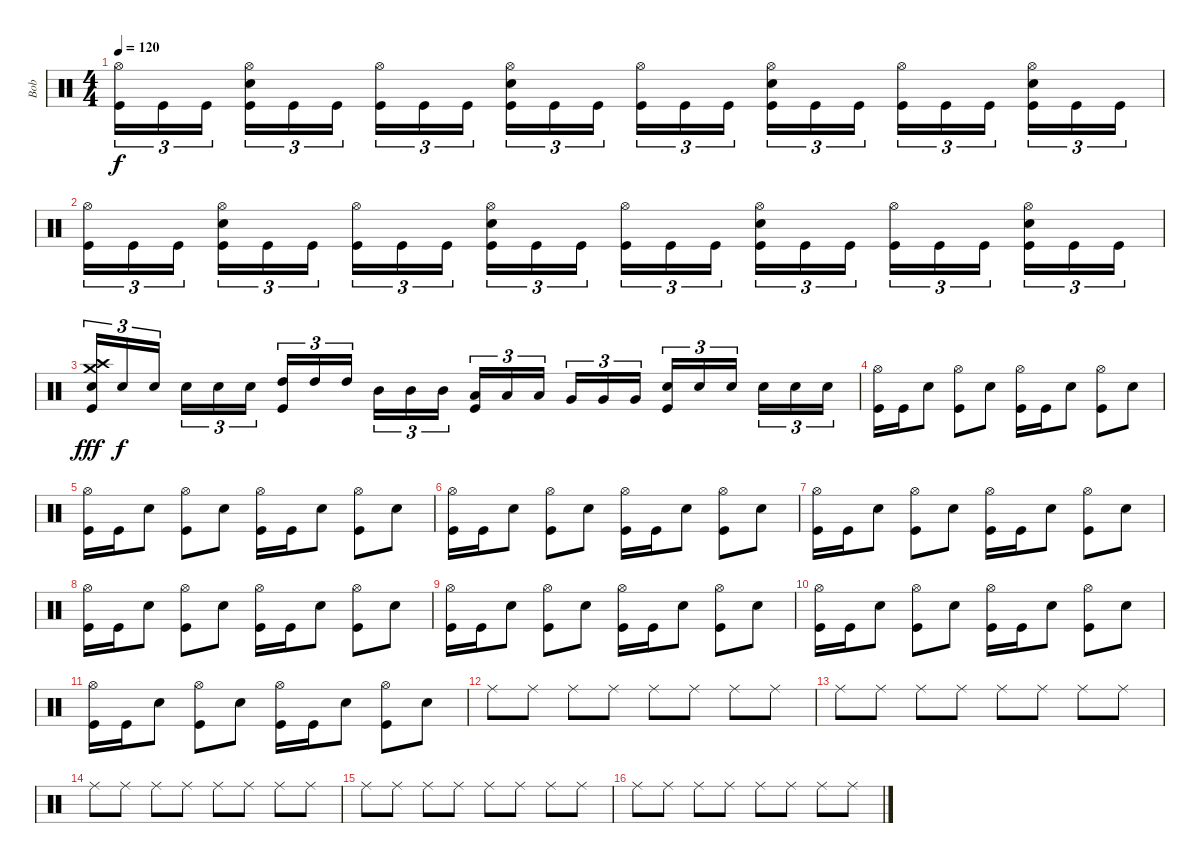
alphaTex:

\track ("Bob" "Bob") {instrument percussion}
\staff {score}
\articulation defaults
\ts (4 4)
\tempo 120
\clef neutral
\ks c
("Hi-Hat (open)" "Kick (hit)").16{tu (3 2) dy f} "Kick (hit)".16{tu (3 2)} "Kick (hit)".16{tu (3 2)} ("Hi-Hat (open)" "Snare (hit) 2" "Kick (hit)").16{tu (3 2)} "Kick (hit)".16{tu (3 2)} "Kick (hit)".16{tu (3 2)} ("Hi-Hat (open)" "Kick (hit)").16{tu (3 2)} "Kick (hit)".16{tu (3 2)} "Kick (hit)".16{tu (3 2)} ("Hi-Hat (open)" "Snare (hit) 2" "Kick (hit)").16{tu (3 2)} "Kick (hit)".16{tu (3 2)} "Kick (hit)".16{tu (3 2)} ("Hi-Hat (open)" "Kick (hit)").16{tu (3 2)} "Kick (hit)".16{tu (3 2)} "Kick (hit)".16{tu (3 2)} ("Hi-Hat (open)" "Snare (hit) 2" "Kick (hit)").16{tu (3 2)} "Kick (hit)".16{tu (3 2)} "Kick (hit)".16{tu (3 2)} ("Hi-Hat (open)" "Kick (hit)").16{tu (3 2)} "Kick (hit)".16{tu (3 2)} "Kick (hit)".16{tu (3 2)} ("Hi-Hat (open)" "Snare (hit) 2" "Kick (hit)").16{tu (3 2)} "Kick (hit)".16{tu (3 2)} "Kick (hit)".16{tu (3 2)} |
("Hi-Hat (open)" "Kick (hit)").16{tu (3 2)} "Kick (hit)".16{tu (3 2)} "Kick (hit)".16{tu (3 2)} ("Hi-Hat (open)" "Snare (hit) 2" "Kick (hit)").16{tu (3 2)} "Kick (hit)".16{tu (3 2)} "Kick (hit)".16{tu (3 2)} ("Hi-Hat (open)" "Kick (hit)").16{tu (3 2)} "Kick (hit)".16{tu (3 2)} "Kick (hit)".16{tu (3 2)} ("Hi-Hat (open)" "Snare (hit) 2" "Kick (hit)").16{tu (3 2)} "Kick (hit)".16{tu (3 2)} "Kick (hit)".16{tu (3 2)} ("Hi-Hat (open)" "Kick (hit)").16{tu (3 2)} "Kick (hit)".16{tu (3 2)} "Kick (hit)".16{tu (3 2)} ("Hi-Hat (open)" "Snare (hit) 2" "Kick (hit)").16{tu (3 2)} "Kick (hit)".16{tu (3 2)} "Kick (hit)".16{tu (3 2)} ("Hi-Hat (open)" "Kick (hit)").16{tu (3 2)} "Kick (hit)".16{tu (3 2)} "Kick (hit)".16{tu (3 2)} ("Hi-Hat (open)" "Snare (hit) 2" "Kick (hit)").16{tu (3 2)} "Kick (hit)".16{tu (3 2)} "Kick (hit)".16{tu (3 2)} |
("Crash high (hit)" "Crash medium (hit)" "Electric Snare (hit)" "Kick (hit)").16{tu (3 2) dy fff} "Electric Snare (hit)".16{tu (3 2) dy f} "Electric Snare (hit)".16{tu (3 2)} "Snare (hit) 2".16{tu (3 2)} "Snare (hit) 2".16{tu (3 2)} "Snare (hit) 2".16{tu (3 2)} ("High Tom (hit)" "Kick (hit)").16{tu (3 2)} "High Tom (hit)".16{tu (3 2)} "High Tom (hit)".16{tu (3 2)} "Mid Tom (hit)".16{tu (3 2)} "Mid Tom (hit)".16{tu (3 2)} "Mid Tom (hit)".16{tu (3 2)} ("Low Tom (hit)" "Kick (hit)").16{tu (3 2)} "Low Tom (hit)".16{tu (3 2)} "Low Tom (hit)".16{tu (3 2)} "Very Low Tom (hit)".16{tu (3 2)} "Very Low Tom (hit)".16{tu (3 2)} "Very Low Tom (hit)".16{tu (3 2)} ("Snare (hit) 2" "Kick (hit)").16{tu (3 2)} "Snare (hit) 2".16{tu (3 2)} "Snare (hit) 2".16{tu (3 2)} "Snare (hit) 2".16{tu (3 2)} "Snare (hit) 2".16{tu (3 2)} "Snare (hit) 2".16{tu (3 2)} |
("Hi-Hat (open)" "Kick (hit)").16 "Kick (hit)".16 "Snare (hit) 2".8 ("Hi-Hat (open)" "Kick (hit)").8 "Snare (hit) 2".8 ("Hi-Hat (open)" "Kick (hit)").16 "Kick (hit)".16 "Snare (hit) 2".8 ("Hi-Hat (open)" "Kick (hit)").8 "Snare (hit) 2".8 |
("Hi-Hat (open)" "Kick (hit)").16 "Kick (hit)".16 "Snare (hit) 2".8 ("Hi-Hat (open)" "Kick (hit)").8 "Snare (hit) 2".8 ("Hi-Hat (open)" "Kick (hit)").16 "Kick (hit)".16 "Snare (hit) 2".8 ("Hi-Hat (open)" "Kick (hit)").8 "Snare (hit) 2".8 |
("Hi-Hat (open)" "Kick (hit)").16 "Kick (hit)".16 "Snare (hit) 2".8 ("Hi-Hat (open)" "Kick (hit)").8 "Snare (hit) 2".8 ("Hi-Hat (open)" "Kick (hit)").16 "Kick (hit)".16 "Snare (hit) 2".8 ("Hi-Hat (open)" "Kick (hit)").8 "Snare (hit) 2".8 |
("Hi-Hat (open)" "Kick (hit)").16 "Kick (hit)".16 "Snare (hit) 2".8 ("Hi-Hat (open)" "Kick (hit)").8 "Snare (hit) 2".8 ("Hi-Hat (open)" "Kick (hit)").16 "Kick (hit)".16 "Snare (hit) 2".8 ("Hi-Hat (open)" "Kick (hit)").8 "Snare (hit) 2".8 |
("Hi-Hat (open)" "Kick (hit)").16 "Kick (hit)".16 "Snare (hit) 2".8 ("Hi-Hat (open)" "Kick (hit)").8 "Snare (hit) 2".8 ("Hi-Hat (open)" "Kick (hit)").16 "Kick (hit)".16 "Snare (hit) 2".8 ("Hi-Hat (open)" "Kick (hit)").8 "Snare (hit) 2".8 |
("Hi-Hat (open)" "Kick (hit)").16 "Kick (hit)".16 "Snare (hit) 2".8 ("Hi-Hat (open)" "Kick (hit)").8 "Snare (hit) 2".8 ("Hi-Hat (open)" "Kick (hit)").16 "Kick (hit)".16 "Snare (hit) 2".8 ("Hi-Hat (open)" "Kick (hit)").8 "Snare (hit) 2".8 |
("Hi-Hat (open)" "Kick (hit)").16 "Kick (hit)".16 "Snare (hit) 2".8 ("Hi-Hat (open)" "Kick (hit)").8 "Snare (hit) 2".8 ("Hi-Hat (open)" "Kick (hit)").16 "Kick (hit)".16 "Snare (hit) 2".8 ("Hi-Hat (open)" "Kick (hit)").8 "Snare (hit) 2".8 |
("Hi-Hat (open)" "Kick (hit)").16 "Kick (hit)".16 "Snare (hit) 2".8 ("Hi-Hat (open)" "Kick (hit)").8 "Snare (hit) 2".8 ("Hi-Hat (open)" "Kick (hit)").16 "Kick (hit)".16 "Snare (hit) 2".8 ("Hi-Hat (open)" "Kick (hit)").8 "Snare (hit) 2".8 |
"Ride (middle)".8 "Ride (middle)".8 "Ride (middle)".8 "Ride (middle)".8 "Ride (middle)".8 "Ride (middle)".8 "Ride (middle)".8 "Ride (middle)".8 |
"Ride (middle)".8 "Ride (middle)".8 "Ride (middle)".8 "Ride (middle)".8 "Ride (middle)".8 "Ride (middle)".8 "Ride (middle)".8 "Ride (middle)".8 |
"Ride (middle)".8 "Ride (middle)".8 "Ride (middle)".8 "Ride (middle)".8 "Ride (middle)".8 "Ride (middle)".8 "Ride (middle)".8 "Ride (middle)".8 |
"Ride (middle)".8 "Ride (middle)".8 "Ride (middle)".8 "Ride (middle)".8 "Ride (middle)".8 "Ride (middle)".8 "Ride (middle)".8 "Ride (middle)".8 |
"Ride (middle)".8 "Ride (middle)".8 "Ride (middle)".8 "Ride (middle)".8 "Ride (middle)".8 "Ride (middle)".8 "Ride (middle)".8 "Ride (middle)".8
